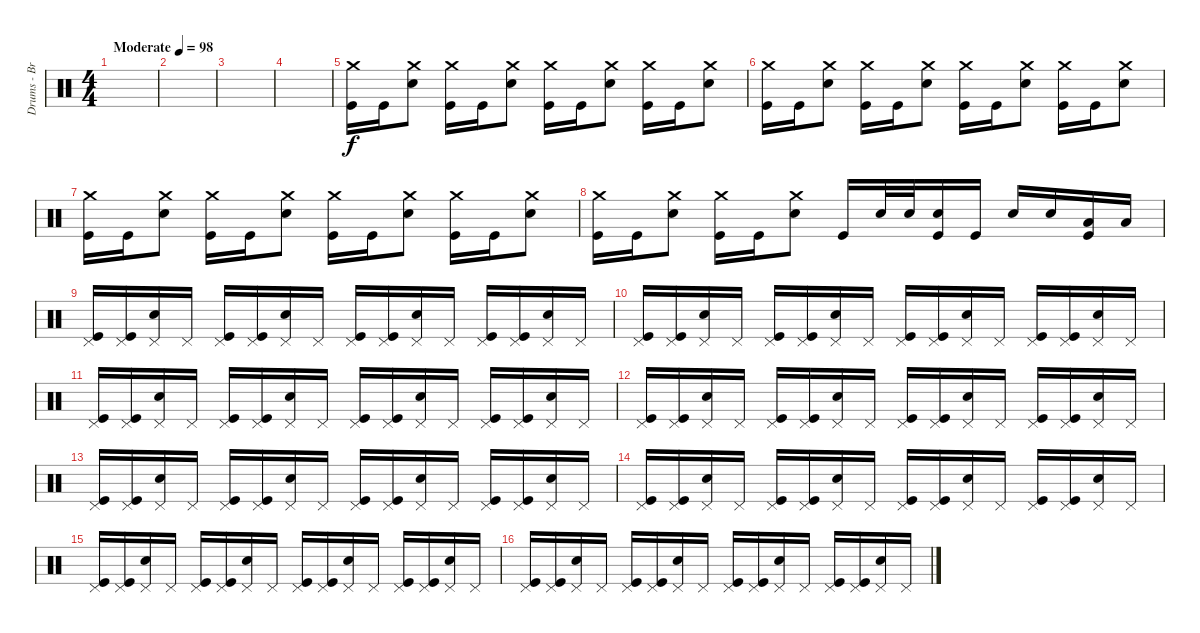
\track ("Drums - Brandon" "Drums - Br") {instrument percussion}
\staff {score}
\articulation defaults
\ts (4 4)
\tempo (98 "Moderate")
\clef neutral
\ks c
|
|
|
|
("Crash medium (hit)" "Kick (hit)").16 "Kick (hit)".16 ("Crash medium (hit)" "Snare (hit) 2").8 ("Crash medium (hit)" "Kick (hit)").16 "Kick (hit)".16 ("Crash medium (hit)" "Snare (hit) 2").8 ("Crash medium (hit)" "Kick (hit)").16 "Kick (hit)".16 ("Crash medium (hit)" "Snare (hit) 2").8 ("Crash medium (hit)" "Kick (hit)").16 "Kick (hit)".16 ("Crash medium (hit)" "Snare (hit) 2").8 |
("Crash medium (hit)" "Kick (hit)").16 "Kick (hit)".16 ("Crash medium (hit)" "Snare (hit) 2").8 ("Crash medium (hit)" "Kick (hit)").16 "Kick (hit)".16 ("Crash medium (hit)" "Snare (hit) 2").8 ("Crash medium (hit)" "Kick (hit)").16 "Kick (hit)".16 ("Crash medium (hit)" "Snare (hit) 2").8 ("Crash medium (hit)" "Kick (hit)").16 "Kick (hit)".16 ("Crash medium (hit)" "Snare (hit) 2").8 |
("Crash medium (hit)" "Kick (hit)").16 "Kick (hit)".16 ("Crash medium (hit)" "Snare (hit) 2").8 ("Crash medium (hit)" "Kick (hit)").16 "Kick (hit)".16 ("Crash medium (hit)" "Snare (hit) 2").8 ("Crash medium (hit)" "Kick (hit)").16 "Kick (hit)".16 ("Crash medium (hit)" "Snare (hit) 2").8 ("Crash medium (hit)" "Kick (hit)").16 "Kick (hit)".16 ("Crash medium (hit)" "Snare (hit) 2").8 |
("Crash medium (hit)" "Kick (hit)").16 "Kick (hit)".16 ("Crash medium (hit)" "Snare (hit) 2").8 ("Crash medium (hit)" "Kick (hit)").16 "Kick (hit)".16 ("Crash medium (hit)" "Snare (hit) 2").8 "Kick (hit)".16 "Snare (hit) 2".32 "Snare (hit) 2".32 ("Snare (hit) 2" "Kick (hit)").16 "Kick (hit)".16 "Snare (hit) 2".16 "Snare (hit) 2".16 ("Low Tom (hit)" "Kick (hit)").16 "Low Floor Tom (hit)".16 |
("Pedal Hi-Hat (hit)" "Kick (hit)").16 ("Pedal Hi-Hat (hit)" "Kick (hit)").16 ("Pedal Hi-Hat (hit)" "Electric Snare (hit)").16 "Pedal Hi-Hat (hit)".16 ("Pedal Hi-Hat (hit)" "Kick (hit)").16 ("Pedal Hi-Hat (hit)" "Kick (hit)").16 ("Pedal Hi-Hat (hit)" "Electric Snare (hit)").16 "Pedal Hi-Hat (hit)".16 ("Pedal Hi-Hat (hit)" "Kick (hit)").16 ("Pedal Hi-Hat (hit)" "Kick (hit)").16 ("Pedal Hi-Hat (hit)" "Electric Snare (hit)").16 "Pedal Hi-Hat (hit)".16 ("Pedal Hi-Hat (hit)" "Kick (hit)").16 ("Pedal Hi-Hat (hit)" "Kick (hit)").16 ("Pedal Hi-Hat (hit)" "Electric Snare (hit)").16 "Pedal Hi-Hat (hit)".16 |
("Pedal Hi-Hat (hit)" "Kick (hit)").16 ("Pedal Hi-Hat (hit)" "Kick (hit)").16 ("Pedal Hi-Hat (hit)" "Electric Snare (hit)").16 "Pedal Hi-Hat (hit)".16 ("Pedal Hi-Hat (hit)" "Kick (hit)").16 ("Pedal Hi-Hat (hit)" "Kick (hit)").16 ("Pedal Hi-Hat (hit)" "Electric Snare (hit)").16 "Pedal Hi-Hat (hit)".16 ("Pedal Hi-Hat (hit)" "Kick (hit)").16 ("Pedal Hi-Hat (hit)" "Kick (hit)").16 ("Pedal Hi-Hat (hit)" "Electric Snare (hit)").16 "Pedal Hi-Hat (hit)".16 ("Pedal Hi-Hat (hit)" "Kick (hit)").16 ("Pedal Hi-Hat (hit)" "Kick (hit)").16 ("Pedal Hi-Hat (hit)" "Electric Snare (hit)").16 "Pedal Hi-Hat (hit)".16 |
("Pedal Hi-Hat (hit)" "Kick (hit)").16 ("Pedal Hi-Hat (hit)" "Kick (hit)").16 ("Pedal Hi-Hat (hit)" "Electric Snare (hit)").16 "Pedal Hi-Hat (hit)".16 ("Pedal Hi-Hat (hit)" "Kick (hit)").16 ("Pedal Hi-Hat (hit)" "Kick (hit)").16 ("Pedal Hi-Hat (hit)" "Electric Snare (hit)").16 "Pedal Hi-Hat (hit)".16 ("Pedal Hi-Hat (hit)" "Kick (hit)").16 ("Pedal Hi-Hat (hit)" "Kick (hit)").16 ("Pedal Hi-Hat (hit)" "Electric Snare (hit)").16 "Pedal Hi-Hat (hit)".16 ("Pedal Hi-Hat (hit)" "Kick (hit)").16 ("Pedal Hi-Hat (hit)" "Kick (hit)").16 ("Pedal Hi-Hat (hit)" "Electric Snare (hit)").16 "Pedal Hi-Hat (hit)".16 |
("Pedal Hi-Hat (hit)" "Kick (hit)").16 ("Pedal Hi-Hat (hit)" "Kick (hit)").16 ("Pedal Hi-Hat (hit)" "Electric Snare (hit)").16 "Pedal Hi-Hat (hit)".16 ("Pedal Hi-Hat (hit)" "Kick (hit)").16 ("Pedal Hi-Hat (hit)" "Kick (hit)").16 ("Pedal Hi-Hat (hit)" "Electric Snare (hit)").16 "Pedal Hi-Hat (hit)".16 ("Pedal Hi-Hat (hit)" "Kick (hit)").16 ("Pedal Hi-Hat (hit)" "Kick (hit)").16 ("Pedal Hi-Hat (hit)" "Electric Snare (hit)").16 "Pedal Hi-Hat (hit)".16 ("Pedal Hi-Hat (hit)" "Kick (hit)").16 ("Pedal Hi-Hat (hit)" "Kick (hit)").16 ("Pedal Hi-Hat (hit)" "Electric Snare (hit)").16 "Pedal Hi-Hat (hit)".16 |
("Pedal Hi-Hat (hit)" "Kick (hit)").16 ("Pedal Hi-Hat (hit)" "Kick (hit)").16 ("Pedal Hi-Hat (hit)" "Electric Snare (hit)").16 "Pedal Hi-Hat (hit)".16 ("Pedal Hi-Hat (hit)" "Kick (hit)").16 ("Pedal Hi-Hat (hit)" "Kick (hit)").16 ("Pedal Hi-Hat (hit)" "Electric Snare (hit)").16 "Pedal Hi-Hat (hit)".16 ("Pedal Hi-Hat (hit)" "Kick (hit)").16 ("Pedal Hi-Hat (hit)" "Kick (hit)").16 ("Pedal Hi-Hat (hit)" "Electric Snare (hit)").16 "Pedal Hi-Hat (hit)".16 ("Pedal Hi-Hat (hit)" "Kick (hit)").16 ("Pedal Hi-Hat (hit)" "Kick (hit)").16 ("Pedal Hi-Hat (hit)" "Electric Snare (hit)").16 "Pedal Hi-Hat (hit)".16 |
("Pedal Hi-Hat (hit)" "Kick (hit)").16 ("Pedal Hi-Hat (hit)" "Kick (hit)").16 ("Pedal Hi-Hat (hit)" "Electric Snare (hit)").16 "Pedal Hi-Hat (hit)".16 ("Pedal Hi-Hat (hit)" "Kick (hit)").16 ("Pedal Hi-Hat (hit)" "Kick (hit)").16 ("Pedal Hi-Hat (hit)" "Electric Snare (hit)").16 "Pedal Hi-Hat (hit)".16 ("Pedal Hi-Hat (hit)" "Kick (hit)").16 ("Pedal Hi-Hat (hit)" "Kick (hit)").16 ("Pedal Hi-Hat (hit)" "Electric Snare (hit)").16 "Pedal Hi-Hat (hit)".16 ("Pedal Hi-Hat (hit)" "Kick (hit)").16 ("Pedal Hi-Hat (hit)" "Kick (hit)").16 ("Pedal Hi-Hat (hit)" "Electric Snare (hit)").16 "Pedal Hi-Hat (hit)".16 |
("Pedal Hi-Hat (hit)" "Kick (hit)").16 ("Pedal Hi-Hat (hit)" "Kick (hit)").16 ("Pedal Hi-Hat (hit)" "Electric Snare (hit)").16 "Pedal Hi-Hat (hit)".16 ("Pedal Hi-Hat (hit)" "Kick (hit)").16 ("Pedal Hi-Hat (hit)" "Kick (hit)").16 ("Pedal Hi-Hat (hit)" "Electric Snare (hit)").16 "Pedal Hi-Hat (hit)".16 ("Pedal Hi-Hat (hit)" "Kick (hit)").16 ("Pedal Hi-Hat (hit)" "Kick (hit)").16 ("Pedal Hi-Hat (hit)" "Electric Snare (hit)").16 "Pedal Hi-Hat (hit)".16 ("Pedal Hi-Hat (hit)" "Kick (hit)").16 ("Pedal Hi-Hat (hit)" "Kick (hit)").16 ("Pedal Hi-Hat (hit)" "Electric Snare (hit)").16 "Pedal Hi-Hat (hit)".16 |
("Pedal Hi-Hat (hit)" "Kick (hit)").16 ("Pedal Hi-Hat (hit)" "Kick (hit)").16 ("Pedal Hi-Hat (hit)" "Electric Snare (hit)").16 "Pedal Hi-Hat (hit)".16 ("Pedal Hi-Hat (hit)" "Kick (hit)").16 ("Pedal Hi-Hat (hit)" "Kick (hit)").16 ("Pedal Hi-Hat (hit)" "Electric Snare (hit)").16 "Pedal Hi-Hat (hit)".16 ("Pedal Hi-Hat (hit)" "Kick (hit)").16 ("Pedal Hi-Hat (hit)" "Kick (hit)").16 ("Pedal Hi-Hat (hit)" "Electric Snare (hit)").16 "Pedal Hi-Hat (hit)".16 ("Pedal Hi-Hat (hit)" "Kick (hit)").16 ("Pedal Hi-Hat (hit)" "Kick (hit)").16 ("Pedal Hi-Hat (hit)" "Electric Snare (hit)").16 "Pedal Hi-Hat (hit)".16
